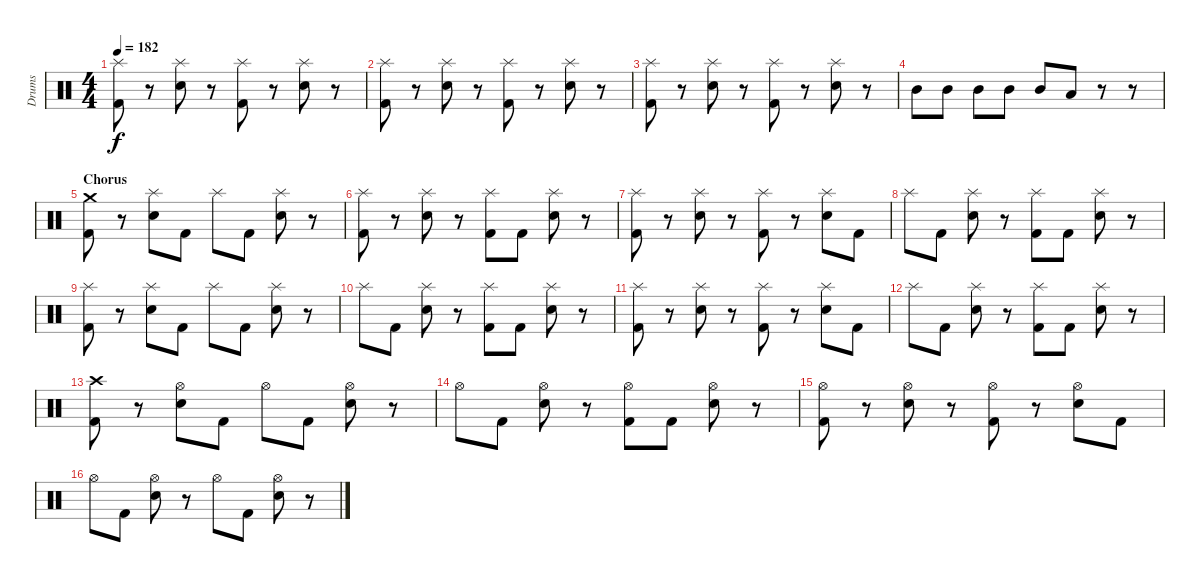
\track ("Drums" "Drums") {instrument percussion}
\staff {score}
\articulation defaults
\ts (4 4)
\tempo 182
\clef neutral
\ks c
("Splash (hit)" "Kick (hit) 2").8{dy f} r.8 ("Splash (hit)" "Snare (hit) 2").8 r.8 ("Splash (hit)" "Kick (hit) 2").8 r.8 ("Splash (hit)" "Snare (hit) 2").8 r.8 |
("Splash (hit)" "Kick (hit) 2").8 r.8 ("Splash (hit)" "Snare (hit) 2").8 r.8 ("Splash (hit)" "Kick (hit) 2").8 r.8 ("Splash (hit)" "Snare (hit) 2").8 r.8 |
("Splash (hit)" "Kick (hit) 2").8 r.8 ("Splash (hit)" "Snare (hit) 2").8 r.8 ("Splash (hit)" "Kick (hit) 2").8 r.8 ("Splash (hit)" "Snare (hit) 2").8 r.8 |
"Mid Tom (hit)".8 "Mid Tom (hit)".8 "Mid Tom (hit)".8 "Mid Tom (hit)".8 "Mid Tom (hit)".8 "Low Tom (hit)".8 r.8 r.8 |
\section ("" "Chorus")
("Crash medium (hit)" "Kick (hit) 2").8 r.8 ("Splash (hit)" "Snare (hit) 2").8 "Kick (hit) 2".8 "Splash (hit)".8 "Kick (hit) 2".8 ("Splash (hit)" "Snare (hit) 2").8 r.8 |
("Splash (hit)" "Kick (hit) 2").8 r.8 ("Splash (hit)" "Snare (hit) 2").8 r.8 ("Splash (hit)" "Kick (hit) 2").8 "Kick (hit) 2".8 ("Splash (hit)" "Snare (hit) 2").8 r.8 |
("Splash (hit)" "Kick (hit) 2").8 r.8 ("Splash (hit)" "Snare (hit) 2").8 r.8 ("Splash (hit)" "Kick (hit) 2").8 r.8 ("Splash (hit)" "Snare (hit) 2").8 "Kick (hit) 2".8 |
"Splash (hit)".8 "Kick (hit) 2".8 ("Splash (hit)" "Snare (hit) 2").8 r.8 ("Splash (hit)" "Kick (hit) 2").8 "Kick (hit) 2".8 ("Splash (hit)" "Snare (hit) 2").8 r.8 |
("Splash (hit)" "Kick (hit) 2").8 r.8 ("Splash (hit)" "Snare (hit) 2").8 "Kick (hit) 2".8 "Splash (hit)".8 "Kick (hit) 2".8 ("Splash (hit)" "Snare (hit) 2").8 r.8 |
"Splash (hit)".8 "Kick (hit) 2".8 ("Splash (hit)" "Snare (hit) 2").8 r.8 ("Splash (hit)" "Kick (hit) 2").8 "Kick (hit) 2".8 ("Splash (hit)" "Snare (hit) 2").8 r.8 |
("Splash (hit)" "Kick (hit) 2").8 r.8 ("Splash (hit)" "Snare (hit) 2").8 r.8 ("Splash (hit)" "Kick (hit) 2").8 r.8 ("Splash (hit)" "Snare (hit) 2").8 "Kick (hit) 2".8 |
"Splash (hit)".8 "Kick (hit) 2".8 ("Splash (hit)" "Snare (hit) 2").8 r.8 ("Splash (hit)" "Kick (hit) 2").8 "Kick (hit) 2".8 ("Splash (hit)" "Snare (hit) 2").8 r.8 |
("Crash high (hit)" "Kick (hit) 2").8 r.8 ("Hi-Hat (open)" "Snare (hit) 2").8 "Kick (hit) 2".8 "Hi-Hat (open)".8 "Kick (hit) 2".8 ("Hi-Hat (open)" "Snare (hit) 2").8 r.8 |
"Hi-Hat (open)".8 "Kick (hit) 2".8 ("Hi-Hat (open)" "Snare (hit) 2").8 r.8 ("Hi-Hat (open)" "Kick (hit) 2").8 "Kick (hit) 2".8 ("Hi-Hat (open)" "Snare (hit) 2").8 r.8 |
("Hi-Hat (open)" "Kick (hit) 2").8 r.8 ("Hi-Hat (open)" "Snare (hit) 2").8 r.8 ("Hi-Hat (open)" "Kick (hit) 2").8 r.8 ("Hi-Hat (open)" "Snare (hit) 2").8 "Kick (hit) 2".8 |
"Hi-Hat (open)".8 "Kick (hit) 2".8 ("Hi-Hat (open)" "Snare (hit) 2").8 r.8 "Hi-Hat (open)".8 "Kick (hit) 2".8 ("Hi-Hat (open)" "Snare (hit) 2").8 r.8
